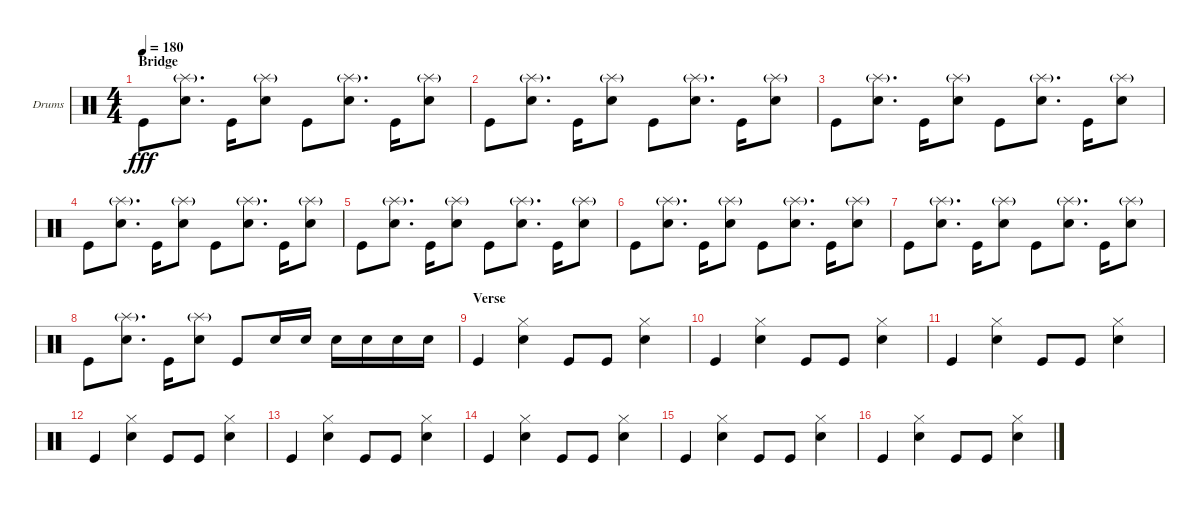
\bracketExtendMode groupsimilarinstruments
\firstSystemTrackNameOrientation horizontal
\otherSystemsTrackNameOrientation horizontal
\track ("Drumkit" "Drums") {instrument percussion}
\staff {score}
\articulation defaults
\ts (4 4)
\section ("" "Bridge")
\tempo 180
\clef neutral
\scale
0.333333
\ks c "Kick (hit)".8{dy fff}
("Snare (hit) 2" "Splash (hit)"{g}).8{d} "Kick (hit)".16 ("Snare (hit) 2" "Splash (hit)"{g}).8 "Kick (hit)".8 ("Snare (hit) 2" "Splash (hit)"{g}).8{d} "Kick (hit)".16 ("Snare (hit) 2" "Splash (hit)"{g}).8 |
\scale
0.333333 "Kick (hit)".8 ("Snare (hit) 2" "Splash (hit)"{g}).8{d} "Kick (hit)".16 ("Snare (hit) 2" "Splash (hit)"{g}).8 "Kick (hit)".8 ("Snare (hit) 2" "Splash (hit)"{g}).8{d} "Kick (hit)".16 ("Snare (hit) 2" "Splash (hit)"{g}).8 |
\scale
0.333333 "Kick (hit)".8 ("Snare (hit) 2" "Splash (hit)"{g}).8{d} "Kick (hit)".16 ("Snare (hit) 2" "Splash (hit)"{g}).8 "Kick (hit)".8 ("Snare (hit) 2" "Splash (hit)"{g}).8{d} "Kick (hit)".16 ("Snare (hit) 2" "Splash (hit)"{g}).8 |
\scale
0.333333 "Kick (hit)".8 ("Snare (hit) 2" "Splash (hit)"{g}).8{d} "Kick (hit)".16 ("Snare (hit) 2" "Splash (hit)"{g}).8 "Kick (hit)".8 ("Snare (hit) 2" "Splash (hit)"{g}).8{d} "Kick (hit)".16 ("Snare (hit) 2" "Splash (hit)"{g}).8 |
\scale
0.333333 "Kick (hit)".8 ("Snare (hit) 2" "Splash (hit)"{g}).8{d} "Kick (hit)".16 ("Snare (hit) 2" "Splash (hit)"{g}).8 "Kick (hit)".8 ("Snare (hit) 2" "Splash (hit)"{g}).8{d} "Kick (hit)".16 ("Snare (hit) 2" "Splash (hit)"{g}).8 |
\scale
0.333333 "Kick (hit)".8 ("Snare (hit) 2" "Splash (hit)"{g}).8{d} "Kick (hit)".16 ("Snare (hit) 2" "Splash (hit)"{g}).8 "Kick (hit)".8 ("Snare (hit) 2" "Splash (hit)"{g}).8{d} "Kick (hit)".16 ("Snare (hit) 2" "Splash (hit)"{g}).8 |
\scale
0.333333 "Kick (hit)".8 ("Snare (hit) 2" "Splash (hit)"{g}).8{d} "Kick (hit)".16 ("Snare (hit) 2" "Splash (hit)"{g}).8 "Kick (hit)".8 ("Snare (hit) 2" "Splash (hit)"{g}).8{d} "Kick (hit)".16 ("Snare (hit) 2" "Splash (hit)"{g}).8 |
\scale
0.333333 "Kick (hit)".8 ("Snare (hit) 2" "Splash (hit)"{g}).8{d} "Kick (hit)".16 ("Snare (hit) 2" "Splash (hit)"{g}).8 "Kick (hit)".8 "Snare (hit) 2".16 "Snare (hit) 2".16 "Snare (hit) 2".16 "Snare (hit) 2".16 "Snare (hit) 2".16 "Snare (hit) 2".16 |
\section ("" "Verse")
\scale
0.333333 "Kick (hit)".4 ("Snare (hit) 2" "Hi-Hat (closed)").4 "Kick (hit)".8 "Kick (hit)".8 ("Snare (hit) 2" "Hi-Hat (closed)").4 |
\scale
0.333333 "Kick (hit)".4 ("Snare (hit) 2" "Hi-Hat (closed)").4 "Kick (hit)".8 "Kick (hit)".8 ("Snare (hit) 2" "Hi-Hat (closed)").4 |
\scale
0.333333 "Kick (hit)".4 ("Snare (hit) 2" "Hi-Hat (closed)").4 "Kick (hit)".8 "Kick (hit)".8 ("Snare (hit) 2" "Hi-Hat (closed)").4 |
\scale
0.333333 "Kick (hit)".4 ("Snare (hit) 2" "Hi-Hat (closed)").4 "Kick (hit)".8 "Kick (hit)".8 ("Snare (hit) 2" "Hi-Hat (closed)").4 |
\scale
0.333333 "Kick (hit)".4 ("Snare (hit) 2" "Hi-Hat (closed)").4 "Kick (hit)".8 "Kick (hit)".8 ("Snare (hit) 2" "Hi-Hat (closed)").4 |
\scale
0.333333 "Kick (hit)".4 ("Snare (hit) 2" "Hi-Hat (closed)").4 "Kick (hit)".8 "Kick (hit)".8 ("Snare (hit) 2" "Hi-Hat (closed)").4 |
\scale
0.333333 "Kick (hit)".4 ("Snare (hit) 2" "Hi-Hat (closed)").4 "Kick (hit)".8 "Kick (hit)".8 ("Snare (hit) 2" "Hi-Hat (closed)").4 |
\scale
0.333333 "Kick (hit)".4 ("Snare (hit) 2" "Hi-Hat (closed)").4 "Kick (hit)".8 "Kick (hit)".8 ("Snare (hit) 2" "Hi-Hat (closed)").4
